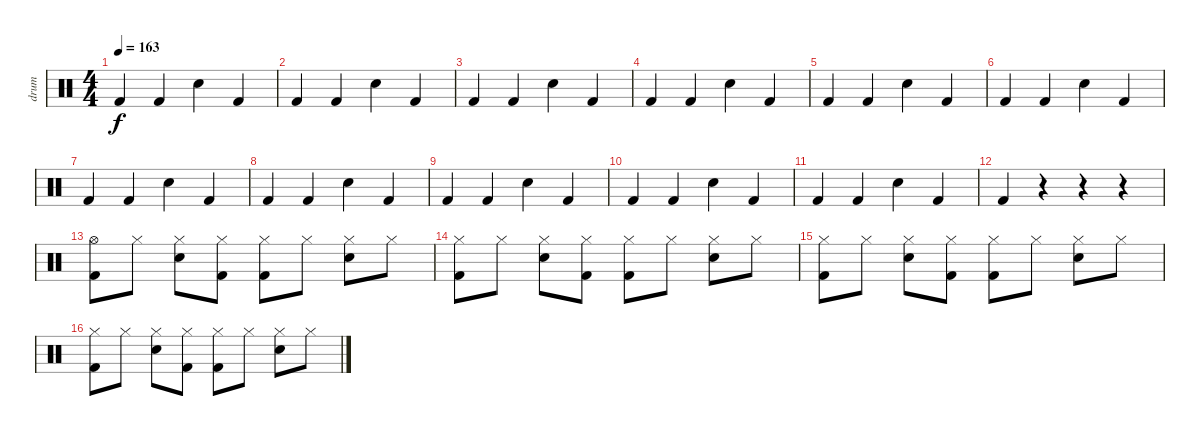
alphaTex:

\track ("drum" "drum") {instrument percussion}
\staff {score}
\articulation defaults
\ts (4 4)
\tempo 163
\clef neutral
\ks c "Kick (hit) 2".4{dy f} "Kick (hit) 2".4 "Electric Snare (hit)".4 "Kick (hit) 2".4
|
"Kick (hit) 2".4 "Kick (hit) 2".4 "Electric Snare (hit)".4 "Kick (hit) 2".4 |
"Kick (hit) 2".4 "Kick (hit) 2".4 "Electric Snare (hit)".4 "Kick (hit) 2".4 |
"Kick (hit) 2".4 "Kick (hit) 2".4 "Electric Snare (hit)".4 "Kick (hit) 2".4 |
"Kick (hit) 2".4 "Kick (hit) 2".4 "Electric Snare (hit)".4 "Kick (hit) 2".4 |
"Kick (hit) 2".4 "Kick (hit) 2".4 "Electric Snare (hit)".4 "Kick (hit) 2".4 |
"Kick (hit) 2".4 "Kick (hit) 2".4 "Electric Snare (hit)".4 "Kick (hit) 2".4 |
"Kick (hit) 2".4 "Kick (hit) 2".4 "Electric Snare (hit)".4 "Kick (hit) 2".4 |
"Kick (hit) 2".4 "Kick (hit) 2".4 "Electric Snare (hit)".4 "Kick (hit) 2".4 |
"Kick (hit) 2".4 "Kick (hit) 2".4 "Electric Snare (hit)".4 "Kick (hit) 2".4 |
"Kick (hit) 2".4 "Kick (hit) 2".4 "Electric Snare (hit)".4 "Kick (hit) 2".4 |
"Kick (hit) 2".4 r.4 r.4 r.4 |
("Hi-Hat (open)" "Kick (hit) 2").8 "Hi-Hat (closed)".8 ("Hi-Hat (closed)" "Electric Snare (hit)").8 ("Hi-Hat (closed)" "Kick (hit) 2").8 ("Hi-Hat (closed)" "Kick (hit) 2").8 "Hi-Hat (closed)".8 ("Hi-Hat (closed)" "Electric Snare (hit)").8 "Hi-Hat (closed)".8 |
("Hi-Hat (closed)" "Kick (hit) 2").8 "Hi-Hat (closed)".8 ("Hi-Hat (closed)" "Electric Snare (hit)").8 ("Hi-Hat (closed)" "Kick (hit) 2").8 ("Hi-Hat (closed)" "Kick (hit) 2").8 "Hi-Hat (closed)".8 ("Hi-Hat (closed)" "Electric Snare (hit)").8 "Hi-Hat (closed)".8 |
("Hi-Hat (closed)" "Kick (hit) 2").8 "Hi-Hat (closed)".8 ("Hi-Hat (closed)" "Electric Snare (hit)").8 ("Hi-Hat (closed)" "Kick (hit) 2").8 ("Hi-Hat (closed)" "Kick (hit) 2").8 "Hi-Hat (closed)".8 ("Hi-Hat (closed)" "Electric Snare (hit)").8 "Hi-Hat (closed)".8 |
("Hi-Hat (closed)" "Kick (hit) 2").8 "Hi-Hat (closed)".8 ("Hi-Hat (closed)" "Electric Snare (hit)").8 ("Hi-Hat (closed)" "Kick (hit) 2").8 ("Hi-Hat (closed)" "Kick (hit) 2").8 "Hi-Hat (closed)".8 ("Hi-Hat (closed)" "Electric Snare (hit)").8 "Hi-Hat (closed)".8
